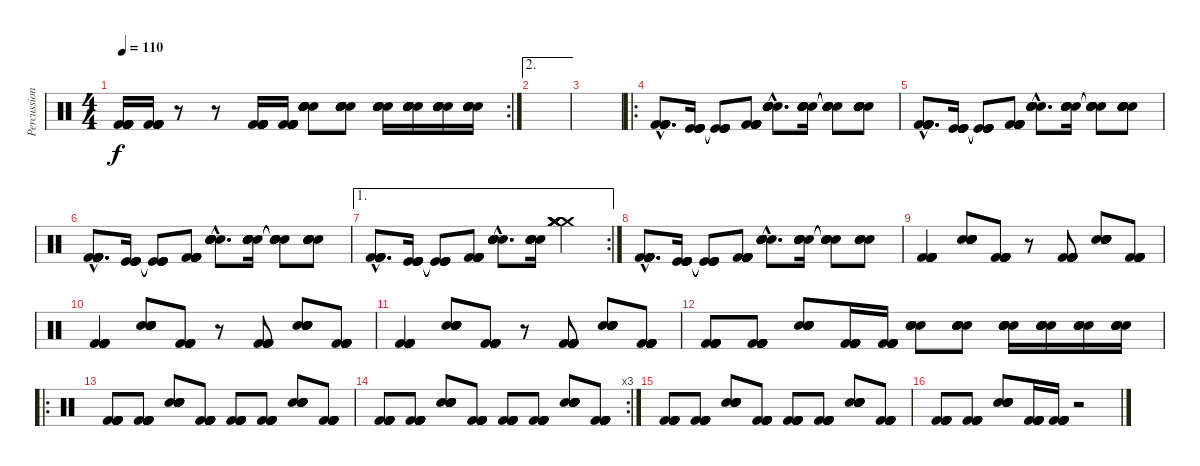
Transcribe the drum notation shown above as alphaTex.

\track ("Percussion 1" "Percussion") {instrument percussion}
\staff {score}
\articulation defaults
\rc 2
\ts (4 4)
\tempo 110
\clef neutral
\ks c
("Kick (hit) 2" "Kick (hit) 2" "Kick (hit) 2" "Kick (hit) 2" "Kick (hit) 2" "Kick (hit) 2").16{dy f} ("Kick (hit) 2" "Kick (hit) 2" "Kick (hit) 2" "Kick (hit) 2" "Kick (hit) 2" "Kick (hit) 2").16 r.8 r.8 ("Kick (hit) 2" "Kick (hit) 2" "Kick (hit) 2" "Kick (hit) 2" "Kick (hit) 2" "Kick (hit) 2").16 ("Kick (hit) 2" "Kick (hit) 2" "Kick (hit) 2" "Kick (hit) 2" "Kick (hit) 2" "Kick (hit) 2").16 ("Electric Snare (hit)" "Electric Snare (hit)" "Electric Snare (hit)" "Electric Snare (hit)" "Electric Snare (hit)" "Electric Snare (hit)").8 ("Electric Snare (hit)" "Electric Snare (hit)" "Electric Snare (hit)" "Electric Snare (hit)" "Electric Snare (hit)" "Electric Snare (hit)").8 ("Electric Snare (hit)" "Electric Snare (hit)" "Electric Snare (hit)" "Electric Snare (hit)" "Electric Snare (hit)" "Electric Snare (hit)").16 ("Electric Snare (hit)" "Electric Snare (hit)" "Electric Snare (hit)" "Electric Snare (hit)" "Electric Snare (hit)" "Electric Snare (hit)").16 ("Electric Snare (hit)" "Electric Snare (hit)" "Electric Snare (hit)" "Electric Snare (hit)" "Electric Snare (hit)" "Electric Snare (hit)").16 ("Electric Snare (hit)" "Electric Snare (hit)" "Electric Snare (hit)" "Electric Snare (hit)" "Electric Snare (hit)" "Electric Snare (hit)").16 |
\ae 2
|
|
\ro
("Kick (hit) 2"{hac} "Kick (hit) 2"{hac} "Kick (hit) 2"{hac} "Kick (hit) 2"{hac} "Kick (hit) 2"{hac} "Kick (hit) 2"{hac}).8{d} ("Kick (hit)" "Kick (hit)" "Kick (hit)" "Kick (hit)" "Kick (hit)" "Kick (hit)").16 ("Kick (hit)"{t} "Kick (hit)"{t} "Kick (hit)"{t} "Kick (hit)"{t} "Kick (hit)"{t}).8 ("Kick (hit) 2" "Kick (hit) 2" "Kick (hit) 2" "Kick (hit) 2" "Kick (hit) 2" "Kick (hit) 2").8 ("Electric Snare (hit)"{hac} "Electric Snare (hit)"{hac} "Electric Snare (hit)"{hac} "Electric Snare (hit)"{hac} "Electric Snare (hit)"{hac} "Electric Snare (hit)"{hac}).8{d} ("Electric Snare (hit)" "Electric Snare (hit)" "Electric Snare (hit)" "Electric Snare (hit)" "Electric Snare (hit)" "Electric Snare (hit)").16 ("Electric Snare (hit)"{t} "Electric Snare (hit)"{t} "Electric Snare (hit)"{t} "Electric Snare (hit)"{t} "Electric Snare (hit)"{t} "Electric Snare (hit)"{t}).8 ("Electric Snare (hit)" "Electric Snare (hit)" "Electric Snare (hit)" "Electric Snare (hit)" "Electric Snare (hit)" "Electric Snare (hit)").8 |
("Kick (hit) 2"{hac} "Kick (hit) 2"{hac} "Kick (hit) 2"{hac} "Kick (hit) 2"{hac} "Kick (hit) 2"{hac} "Kick (hit) 2"{hac}).8{d} ("Kick (hit)" "Kick (hit)" "Kick (hit)" "Kick (hit)" "Kick (hit)" "Kick (hit)").16 ("Kick (hit)"{t} "Kick (hit)"{t} "Kick (hit)"{t} "Kick (hit)"{t} "Kick (hit)"{t}).8 ("Kick (hit) 2" "Kick (hit) 2" "Kick (hit) 2" "Kick (hit) 2" "Kick (hit) 2" "Kick (hit) 2").8 ("Electric Snare (hit)"{hac} "Electric Snare (hit)"{hac} "Electric Snare (hit)"{hac} "Electric Snare (hit)"{hac} "Electric Snare (hit)"{hac} "Electric Snare (hit)"{hac}).8{d} ("Electric Snare (hit)" "Electric Snare (hit)" "Electric Snare (hit)" "Electric Snare (hit)" "Electric Snare (hit)" "Electric Snare (hit)").16 ("Electric Snare (hit)"{t} "Electric Snare (hit)"{t} "Electric Snare (hit)"{t} "Electric Snare (hit)"{t} "Electric Snare (hit)"{t} "Electric Snare (hit)"{t}).8 ("Electric Snare (hit)" "Electric Snare (hit)" "Electric Snare (hit)" "Electric Snare (hit)" "Electric Snare (hit)" "Electric Snare (hit)").8 |
("Kick (hit) 2"{hac} "Kick (hit) 2"{hac} "Kick (hit) 2"{hac} "Kick (hit) 2"{hac} "Kick (hit) 2"{hac} "Kick (hit) 2"{hac}).8{d} ("Kick (hit)" "Kick (hit)" "Kick (hit)" "Kick (hit)" "Kick (hit)" "Kick (hit)").16 ("Kick (hit)"{t} "Kick (hit)"{t} "Kick (hit)"{t} "Kick (hit)"{t} "Kick (hit)"{t}).8 ("Kick (hit) 2" "Kick (hit) 2" "Kick (hit) 2" "Kick (hit) 2" "Kick (hit) 2" "Kick (hit) 2").8 ("Electric Snare (hit)"{hac} "Electric Snare (hit)"{hac} "Electric Snare (hit)"{hac} "Electric Snare (hit)"{hac} "Electric Snare (hit)"{hac} "Electric Snare (hit)"{hac}).8{d} ("Electric Snare (hit)" "Electric Snare (hit)" "Electric Snare (hit)" "Electric Snare (hit)" "Electric Snare (hit)" "Electric Snare (hit)").16 ("Electric Snare (hit)"{t} "Electric Snare (hit)"{t} "Electric Snare (hit)"{t} "Electric Snare (hit)"{t} "Electric Snare (hit)"{t} "Electric Snare (hit)"{t}).8 ("Electric Snare (hit)" "Electric Snare (hit)" "Electric Snare (hit)" "Electric Snare (hit)" "Electric Snare (hit)" "Electric Snare (hit)").8 |
\ae 1
\rc 2
("Kick (hit) 2"{hac} "Kick (hit) 2"{hac} "Kick (hit) 2"{hac} "Kick (hit) 2"{hac} "Kick (hit) 2"{hac} "Kick (hit) 2"{hac}).8{d} ("Kick (hit)" "Kick (hit)" "Kick (hit)" "Kick (hit)" "Kick (hit)" "Kick (hit)").16 ("Kick (hit)"{t} "Kick (hit)"{t} "Kick (hit)"{t} "Kick (hit)"{t} "Kick (hit)"{t}).8 ("Kick (hit) 2" "Kick (hit) 2" "Kick (hit) 2" "Kick (hit) 2" "Kick (hit) 2" "Kick (hit) 2").8 ("Electric Snare (hit)"{hac} "Electric Snare (hit)"{hac} "Electric Snare (hit)"{hac} "Electric Snare (hit)"{hac} "Electric Snare (hit)"{hac} "Electric Snare (hit)"{hac}).8{d} ("Electric Snare (hit)" "Electric Snare (hit)" "Electric Snare (hit)" "Electric Snare (hit)" "Electric Snare (hit)" "Electric Snare (hit)").16 ("Crash medium (hit)" "Crash medium (hit)" "Crash medium (hit)" "Crash medium (hit)" "Crash medium (hit)" "Crash medium (hit)").4 |
("Kick (hit) 2"{hac} "Kick (hit) 2"{hac} "Kick (hit) 2"{hac} "Kick (hit) 2"{hac} "Kick (hit) 2"{hac} "Kick (hit) 2"{hac}).8{d} ("Kick (hit)" "Kick (hit)" "Kick (hit)" "Kick (hit)" "Kick (hit)" "Kick (hit)").16 ("Kick (hit)"{t} "Kick (hit)"{t} "Kick (hit)"{t} "Kick (hit)"{t} "Kick (hit)"{t}).8 ("Kick (hit) 2" "Kick (hit) 2" "Kick (hit) 2" "Kick (hit) 2" "Kick (hit) 2" "Kick (hit) 2").8 ("Electric Snare (hit)"{hac} "Electric Snare (hit)"{hac} "Electric Snare (hit)"{hac} "Electric Snare (hit)"{hac} "Electric Snare (hit)"{hac} "Electric Snare (hit)"{hac}).8{d} ("Electric Snare (hit)" "Electric Snare (hit)" "Electric Snare (hit)" "Electric Snare (hit)" "Electric Snare (hit)" "Electric Snare (hit)").16 ("Electric Snare (hit)"{t} "Electric Snare (hit)"{t} "Electric Snare (hit)"{t} "Electric Snare (hit)"{t} "Electric Snare (hit)"{t} "Electric Snare (hit)"{t}).8 ("Electric Snare (hit)" "Electric Snare (hit)" "Electric Snare (hit)" "Electric Snare (hit)" "Electric Snare (hit)" "Electric Snare (hit)").8 |
("Kick (hit) 2" "Kick (hit) 2" "Kick (hit) 2" "Kick (hit) 2" "Kick (hit) 2" "Kick (hit) 2").4 ("Electric Snare (hit)" "Electric Snare (hit)" "Electric Snare (hit)" "Electric Snare (hit)" "Electric Snare (hit)" "Electric Snare (hit)").8 ("Kick (hit) 2" "Kick (hit) 2" "Kick (hit) 2" "Kick (hit) 2" "Kick (hit) 2" "Kick (hit) 2").8 r.8 ("Kick (hit) 2" "Kick (hit) 2" "Kick (hit) 2" "Kick (hit) 2" "Kick (hit) 2" "Kick (hit) 2").8 ("Electric Snare (hit)" "Electric Snare (hit)" "Electric Snare (hit)" "Electric Snare (hit)" "Electric Snare (hit)" "Electric Snare (hit)").8 ("Kick (hit) 2" "Kick (hit) 2" "Kick (hit) 2" "Kick (hit) 2" "Kick (hit) 2" "Kick (hit) 2").8 |
("Kick (hit) 2" "Kick (hit) 2" "Kick (hit) 2" "Kick (hit) 2" "Kick (hit) 2" "Kick (hit) 2").4 ("Electric Snare (hit)" "Electric Snare (hit)" "Electric Snare (hit)" "Electric Snare (hit)" "Electric Snare (hit)" "Electric Snare (hit)").8 ("Kick (hit) 2" "Kick (hit) 2" "Kick (hit) 2" "Kick (hit) 2" "Kick (hit) 2" "Kick (hit) 2").8 r.8 ("Kick (hit) 2" "Kick (hit) 2" "Kick (hit) 2" "Kick (hit) 2" "Kick (hit) 2" "Kick (hit) 2").8 ("Electric Snare (hit)" "Electric Snare (hit)" "Electric Snare (hit)" "Electric Snare (hit)" "Electric Snare (hit)" "Electric Snare (hit)").8 ("Kick (hit) 2" "Kick (hit) 2" "Kick (hit) 2" "Kick (hit) 2" "Kick (hit) 2" "Kick (hit) 2").8 |
("Kick (hit) 2" "Kick (hit) 2" "Kick (hit) 2" "Kick (hit) 2" "Kick (hit) 2" "Kick (hit) 2").4 ("Electric Snare (hit)" "Electric Snare (hit)" "Electric Snare (hit)" "Electric Snare (hit)" "Electric Snare (hit)" "Electric Snare (hit)").8 ("Kick (hit) 2" "Kick (hit) 2" "Kick (hit) 2" "Kick (hit) 2" "Kick (hit) 2" "Kick (hit) 2").8 r.8 ("Kick (hit) 2" "Kick (hit) 2" "Kick (hit) 2" "Kick (hit) 2" "Kick (hit) 2" "Kick (hit) 2").8 ("Electric Snare (hit)" "Electric Snare (hit)" "Electric Snare (hit)" "Electric Snare (hit)" "Electric Snare (hit)" "Electric Snare (hit)").8 ("Kick (hit) 2" "Kick (hit) 2" "Kick (hit) 2" "Kick (hit) 2" "Kick (hit) 2" "Kick (hit) 2").8 |
("Kick (hit) 2" "Kick (hit) 2" "Kick (hit) 2" "Kick (hit) 2" "Kick (hit) 2" "Kick (hit) 2").8 ("Kick (hit) 2" "Kick (hit) 2" "Kick (hit) 2" "Kick (hit) 2" "Kick (hit) 2" "Kick (hit) 2").8 ("Electric Snare (hit)" "Electric Snare (hit)" "Electric Snare (hit)" "Electric Snare (hit)" "Electric Snare (hit)" "Electric Snare (hit)").8 ("Kick (hit) 2" "Kick (hit) 2" "Kick (hit) 2" "Kick (hit) 2" "Kick (hit) 2" "Kick (hit) 2").16 ("Kick (hit) 2" "Kick (hit) 2" "Kick (hit) 2" "Kick (hit) 2" "Kick (hit) 2" "Kick (hit) 2").16 ("Electric Snare (hit)" "Electric Snare (hit)" "Electric Snare (hit)" "Electric Snare (hit)" "Electric Snare (hit)" "Electric Snare (hit)").8 ("Electric Snare (hit)" "Electric Snare (hit)" "Electric Snare (hit)" "Electric Snare (hit)" "Electric Snare (hit)" "Electric Snare (hit)").8 ("Electric Snare (hit)" "Electric Snare (hit)" "Electric Snare (hit)" "Electric Snare (hit)" "Electric Snare (hit)" "Electric Snare (hit)").16 ("Electric Snare (hit)" "Electric Snare (hit)" "Electric Snare (hit)" "Electric Snare (hit)" "Electric Snare (hit)" "Electric Snare (hit)").16 ("Electric Snare (hit)" "Electric Snare (hit)" "Electric Snare (hit)" "Electric Snare (hit)" "Electric Snare (hit)" "Electric Snare (hit)").16 ("Electric Snare (hit)" "Electric Snare (hit)" "Electric Snare (hit)" "Electric Snare (hit)" "Electric Snare (hit)" "Electric Snare (hit)").16 |
\ro
("Kick (hit) 2" "Kick (hit) 2" "Kick (hit) 2" "Kick (hit) 2" "Kick (hit) 2" "Kick (hit) 2").8 ("Kick (hit) 2" "Kick (hit) 2" "Kick (hit) 2" "Kick (hit) 2" "Kick (hit) 2" "Kick (hit) 2").8 ("Electric Snare (hit)" "Electric Snare (hit)" "Electric Snare (hit)" "Electric Snare (hit)" "Electric Snare (hit)" "Electric Snare (hit)").8 ("Kick (hit) 2" "Kick (hit) 2" "Kick (hit) 2" "Kick (hit) 2" "Kick (hit) 2" "Kick (hit) 2").8 ("Kick (hit) 2" "Kick (hit) 2" "Kick (hit) 2" "Kick (hit) 2" "Kick (hit) 2" "Kick (hit) 2").8 ("Kick (hit) 2" "Kick (hit) 2" "Kick (hit) 2" "Kick (hit) 2" "Kick (hit) 2" "Kick (hit) 2").8 ("Electric Snare (hit)" "Electric Snare (hit)" "Electric Snare (hit)" "Electric Snare (hit)" "Electric Snare (hit)" "Electric Snare (hit)").8 ("Kick (hit) 2" "Kick (hit) 2" "Kick (hit) 2" "Kick (hit) 2" "Kick (hit) 2" "Kick (hit) 2").8 |
\rc 3
("Kick (hit) 2" "Kick (hit) 2" "Kick (hit) 2" "Kick (hit) 2" "Kick (hit) 2" "Kick (hit) 2").8 ("Kick (hit) 2" "Kick (hit) 2" "Kick (hit) 2" "Kick (hit) 2" "Kick (hit) 2" "Kick (hit) 2").8 ("Electric Snare (hit)" "Electric Snare (hit)" "Electric Snare (hit)" "Electric Snare (hit)" "Electric Snare (hit)" "Electric Snare (hit)").8 ("Kick (hit) 2" "Kick (hit) 2" "Kick (hit) 2" "Kick (hit) 2" "Kick (hit) 2" "Kick (hit) 2").8 ("Kick (hit) 2" "Kick (hit) 2" "Kick (hit) 2" "Kick (hit) 2" "Kick (hit) 2" "Kick (hit) 2").8 ("Kick (hit) 2" "Kick (hit) 2" "Kick (hit) 2" "Kick (hit) 2" "Kick (hit) 2" "Kick (hit) 2").8 ("Electric Snare (hit)" "Electric Snare (hit)" "Electric Snare (hit)" "Electric Snare (hit)" "Electric Snare (hit)" "Electric Snare (hit)").8 ("Kick (hit) 2" "Kick (hit) 2" "Kick (hit) 2" "Kick (hit) 2" "Kick (hit) 2" "Kick (hit) 2").8 |
("Kick (hit) 2" "Kick (hit) 2" "Kick (hit) 2" "Kick (hit) 2" "Kick (hit) 2" "Kick (hit) 2").8 ("Kick (hit) 2" "Kick (hit) 2" "Kick (hit) 2" "Kick (hit) 2" "Kick (hit) 2" "Kick (hit) 2").8 ("Electric Snare (hit)" "Electric Snare (hit)" "Electric Snare (hit)" "Electric Snare (hit)" "Electric Snare (hit)" "Electric Snare (hit)").8 ("Kick (hit) 2" "Kick (hit) 2" "Kick (hit) 2" "Kick (hit) 2" "Kick (hit) 2" "Kick (hit) 2").8 ("Kick (hit) 2" "Kick (hit) 2" "Kick (hit) 2" "Kick (hit) 2" "Kick (hit) 2" "Kick (hit) 2").8 ("Kick (hit) 2" "Kick (hit) 2" "Kick (hit) 2" "Kick (hit) 2" "Kick (hit) 2" "Kick (hit) 2").8 ("Electric Snare (hit)" "Electric Snare (hit)" "Electric Snare (hit)" "Electric Snare (hit)" "Electric Snare (hit)" "Electric Snare (hit)").8 ("Kick (hit) 2" "Kick (hit) 2" "Kick (hit) 2" "Kick (hit) 2" "Kick (hit) 2" "Kick (hit) 2").8 |
("Kick (hit) 2" "Kick (hit) 2" "Kick (hit) 2" "Kick (hit) 2" "Kick (hit) 2" "Kick (hit) 2").8 ("Kick (hit) 2" "Kick (hit) 2" "Kick (hit) 2" "Kick (hit) 2" "Kick (hit) 2" "Kick (hit) 2").8 ("Electric Snare (hit)" "Electric Snare (hit)" "Electric Snare (hit)" "Electric Snare (hit)" "Electric Snare (hit)" "Electric Snare (hit)").8 ("Kick (hit) 2" "Kick (hit) 2" "Kick (hit) 2" "Kick (hit) 2" "Kick (hit) 2" "Kick (hit) 2").16 ("Kick (hit) 2" "Kick (hit) 2" "Kick (hit) 2" "Kick (hit) 2" "Kick (hit) 2" "Kick (hit) 2").16 r.2
